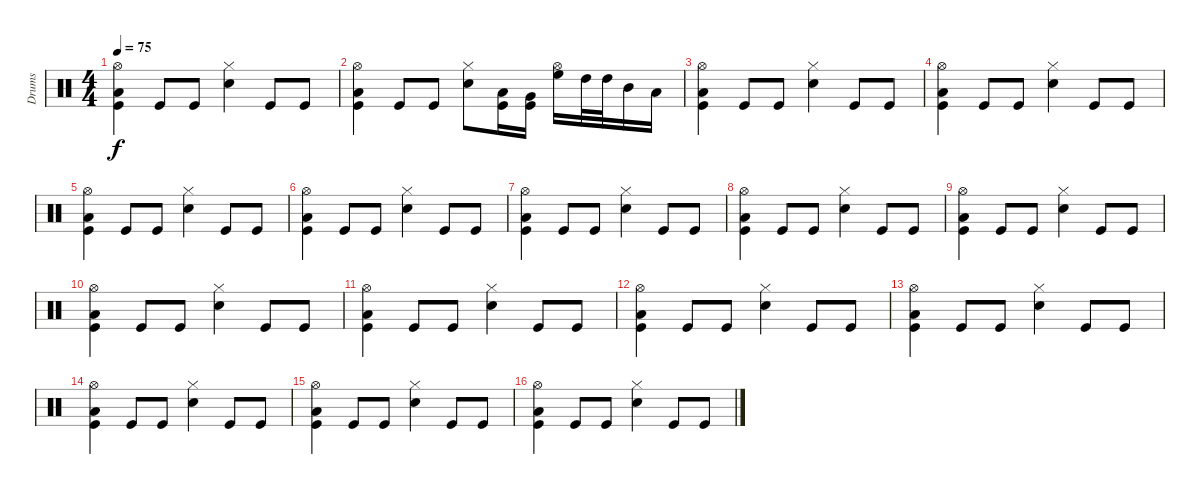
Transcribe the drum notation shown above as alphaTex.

\track ("Drums" "Drums") {instrument percussion}
\staff {score}
\articulation defaults
\ts (4 4)
\tempo 75
\clef neutral
\ks c
("Hi-Hat (open)" "Low Tom (hit)" "Kick (hit)").4{dy f} "Kick (hit)".8 "Kick (hit)".8 ("Hi-Hat (closed)" "Snare (hit) 2").4 "Kick (hit)".8 "Kick (hit)".8 |
("Hi-Hat (open)" "Low Tom (hit)" "Kick (hit)").4 "Kick (hit)".8 "Kick (hit)".8 ("Hi-Hat (closed)" "Snare (hit) 2").8 ("Low Floor Tom (hit)" "Kick (hit)").16 ("Very Low Tom (hit)" "Kick (hit)").16 ("Hi-Hat (open)" "High Floor Tom (hit)").16 "High Tom (hit)".32 "High Tom (hit)".32 "Mid Tom (hit)".16 "Low Tom (hit)".16 |
("Hi-Hat (open)" "Low Tom (hit)" "Kick (hit)").4 "Kick (hit)".8 "Kick (hit)".8 ("Hi-Hat (closed)" "Snare (hit) 2").4 "Kick (hit)".8 "Kick (hit)".8 |
("Hi-Hat (open)" "Low Tom (hit)" "Kick (hit)").4 "Kick (hit)".8 "Kick (hit)".8 ("Hi-Hat (closed)" "Snare (hit) 2").4 "Kick (hit)".8 "Kick (hit)".8 |
("Hi-Hat (open)" "Low Tom (hit)" "Kick (hit)").4 "Kick (hit)".8 "Kick (hit)".8 ("Hi-Hat (closed)" "Snare (hit) 2").4 "Kick (hit)".8 "Kick (hit)".8 |
("Hi-Hat (open)" "Low Tom (hit)" "Kick (hit)").4 "Kick (hit)".8 "Kick (hit)".8 ("Hi-Hat (closed)" "Snare (hit) 2").4 "Kick (hit)".8 "Kick (hit)".8 |
("Hi-Hat (open)" "Low Tom (hit)" "Kick (hit)").4 "Kick (hit)".8 "Kick (hit)".8 ("Hi-Hat (closed)" "Snare (hit) 2").4 "Kick (hit)".8 "Kick (hit)".8 |
("Hi-Hat (open)" "Low Tom (hit)" "Kick (hit)").4 "Kick (hit)".8 "Kick (hit)".8 ("Hi-Hat (closed)" "Snare (hit) 2").4 "Kick (hit)".8 "Kick (hit)".8 |
("Hi-Hat (open)" "Low Tom (hit)" "Kick (hit)").4 "Kick (hit)".8 "Kick (hit)".8 ("Hi-Hat (closed)" "Snare (hit) 2").4 "Kick (hit)".8 "Kick (hit)".8 |
("Hi-Hat (open)" "Low Tom (hit)" "Kick (hit)").4 "Kick (hit)".8 "Kick (hit)".8 ("Hi-Hat (closed)" "Snare (hit) 2").4 "Kick (hit)".8 "Kick (hit)".8 |
("Hi-Hat (open)" "Low Tom (hit)" "Kick (hit)").4 "Kick (hit)".8 "Kick (hit)".8 ("Hi-Hat (closed)" "Snare (hit) 2").4 "Kick (hit)".8 "Kick (hit)".8 |
("Hi-Hat (open)" "Low Tom (hit)" "Kick (hit)").4 "Kick (hit)".8 "Kick (hit)".8 ("Hi-Hat (closed)" "Snare (hit) 2").4 "Kick (hit)".8 "Kick (hit)".8 |
("Hi-Hat (open)" "Low Tom (hit)" "Kick (hit)").4 "Kick (hit)".8 "Kick (hit)".8 ("Hi-Hat (closed)" "Snare (hit) 2").4 "Kick (hit)".8 "Kick (hit)".8 |
("Hi-Hat (open)" "Low Tom (hit)" "Kick (hit)").4 "Kick (hit)".8 "Kick (hit)".8 ("Hi-Hat (closed)" "Snare (hit) 2").4 "Kick (hit)".8 "Kick (hit)".8 |
("Hi-Hat (open)" "Low Tom (hit)" "Kick (hit)").4 "Kick (hit)".8 "Kick (hit)".8 ("Hi-Hat (closed)" "Snare (hit) 2").4 "Kick (hit)".8 "Kick (hit)".8 |
("Hi-Hat (open)" "Low Tom (hit)" "Kick (hit)").4 "Kick (hit)".8 "Kick (hit)".8 ("Hi-Hat (closed)" "Snare (hit) 2").4 "Kick (hit)".8 "Kick (hit)".8
